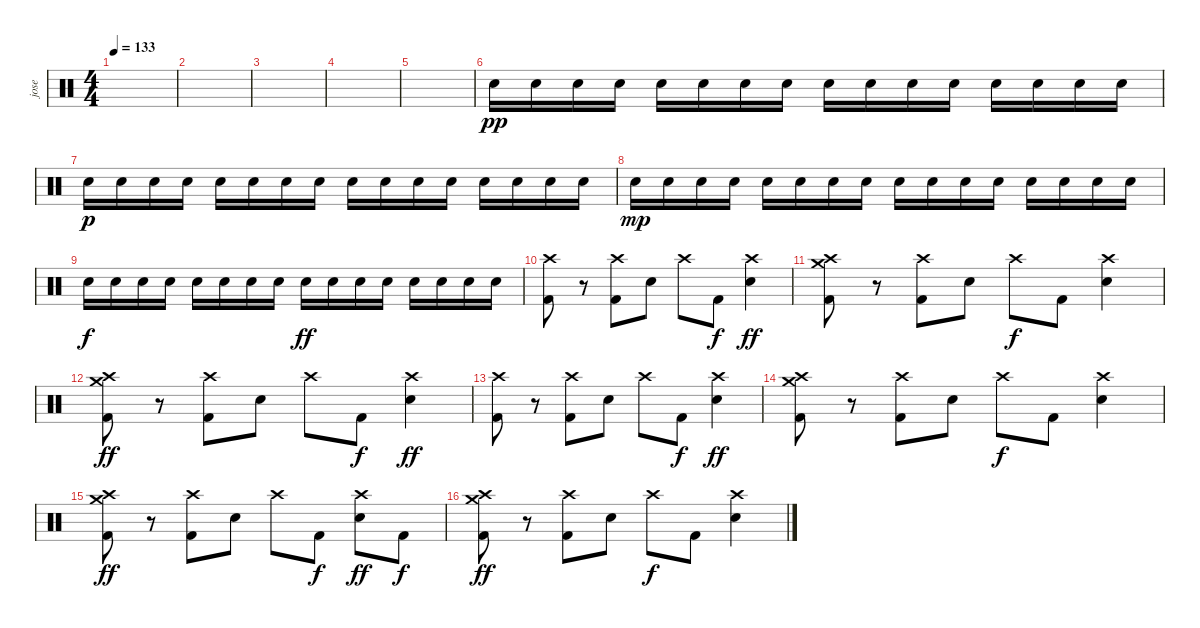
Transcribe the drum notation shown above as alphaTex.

\track ("jose" "jose") {instrument percussion}
\staff {score}
\articulation defaults
\ts (4 4)
\tempo 133
\clef neutral
\ks c
|
|
|
|
|
"Snare (hit) 2".16{dy pp} "Snare (hit) 2".16 "Snare (hit) 2".16 "Snare (hit) 2".16 "Snare (hit) 2".16 "Snare (hit) 2".16 "Snare (hit) 2".16 "Snare (hit) 2".16 "Snare (hit) 2".16 "Snare (hit) 2".16 "Snare (hit) 2".16 "Snare (hit) 2".16 "Snare (hit) 2".16 "Snare (hit) 2".16 "Snare (hit) 2".16 "Snare (hit) 2".16 |
"Snare (hit) 2".16{dy p} "Snare (hit) 2".16 "Snare (hit) 2".16 "Snare (hit) 2".16 "Snare (hit) 2".16 "Snare (hit) 2".16 "Snare (hit) 2".16 "Snare (hit) 2".16 "Snare (hit) 2".16 "Snare (hit) 2".16 "Snare (hit) 2".16 "Snare (hit) 2".16 "Snare (hit) 2".16 "Snare (hit) 2".16 "Snare (hit) 2".16 "Snare (hit) 2".16 |
"Snare (hit) 2".16{dy mp} "Snare (hit) 2".16 "Snare (hit) 2".16 "Snare (hit) 2".16 "Snare (hit) 2".16 "Snare (hit) 2".16 "Snare (hit) 2".16 "Snare (hit) 2".16 "Snare (hit) 2".16 "Snare (hit) 2".16 "Snare (hit) 2".16 "Snare (hit) 2".16 "Snare (hit) 2".16 "Snare (hit) 2".16 "Snare (hit) 2".16 "Snare (hit) 2".16 |
"Snare (hit) 2".16{dy f} "Snare (hit) 2".16 "Snare (hit) 2".16 "Snare (hit) 2".16 "Snare (hit) 2".16 "Snare (hit) 2".16 "Snare (hit) 2".16 "Snare (hit) 2".16 "Snare (hit) 2".16{dy ff} "Snare (hit) 2".16 "Snare (hit) 2".16 "Snare (hit) 2".16 "Snare (hit) 2".16 "Snare (hit) 2".16 "Snare (hit) 2".16 "Snare (hit) 2".16 |
("Crash high (hit)" "Kick (hit) 2").8 r.8 ("Crash high (hit)" "Kick (hit) 2").8 "Snare (hit) 2".8 "Crash high (hit)".8 "Kick (hit) 2".8{dy f} ("Crash high (hit)" "Snare (hit) 2").4{dy ff} |
("Crash high (hit)" "Crash medium (hit)" "Kick (hit) 2").8 r.8 ("Crash high (hit)" "Kick (hit) 2").8 "Snare (hit) 2".8 "Crash high (hit)".8{dy f} "Kick (hit) 2".8 ("Crash high (hit)" "Snare (hit) 2").4 |
("Crash high (hit)" "Crash medium (hit)" "Kick (hit) 2").8{dy ff} r.8 ("Crash high (hit)" "Kick (hit) 2").8 "Snare (hit) 2".8 "Crash high (hit)".8 "Kick (hit) 2".8{dy f} ("Crash high (hit)" "Snare (hit) 2").4{dy ff} |
("Crash high (hit)" "Kick (hit) 2").8 r.8 ("Crash high (hit)" "Kick (hit) 2").8 "Snare (hit) 2".8 "Crash high (hit)".8 "Kick (hit) 2".8{dy f} ("Crash high (hit)" "Snare (hit) 2").4{dy ff} |
("Crash high (hit)" "Crash medium (hit)" "Kick (hit) 2").8 r.8 ("Crash high (hit)" "Kick (hit) 2").8 "Snare (hit) 2".8 "Crash high (hit)".8{dy f} "Kick (hit) 2".8 ("Crash high (hit)" "Snare (hit) 2").4 |
("Crash high (hit)" "Crash medium (hit)" "Kick (hit) 2").8{dy ff} r.8 ("Crash high (hit)" "Kick (hit) 2").8 "Snare (hit) 2".8 "Crash high (hit)".8 "Kick (hit) 2".8{dy f} ("Crash high (hit)" "Snare (hit) 2").8{dy ff} "Kick (hit) 2".8{dy f} |
("Crash high (hit)" "Crash medium (hit)" "Kick (hit) 2").8{dy ff} r.8 ("Crash high (hit)" "Kick (hit) 2").8 "Snare (hit) 2".8 "Crash high (hit)".8{dy f} "Kick (hit) 2".8 ("Crash high (hit)" "Snare (hit) 2").4
